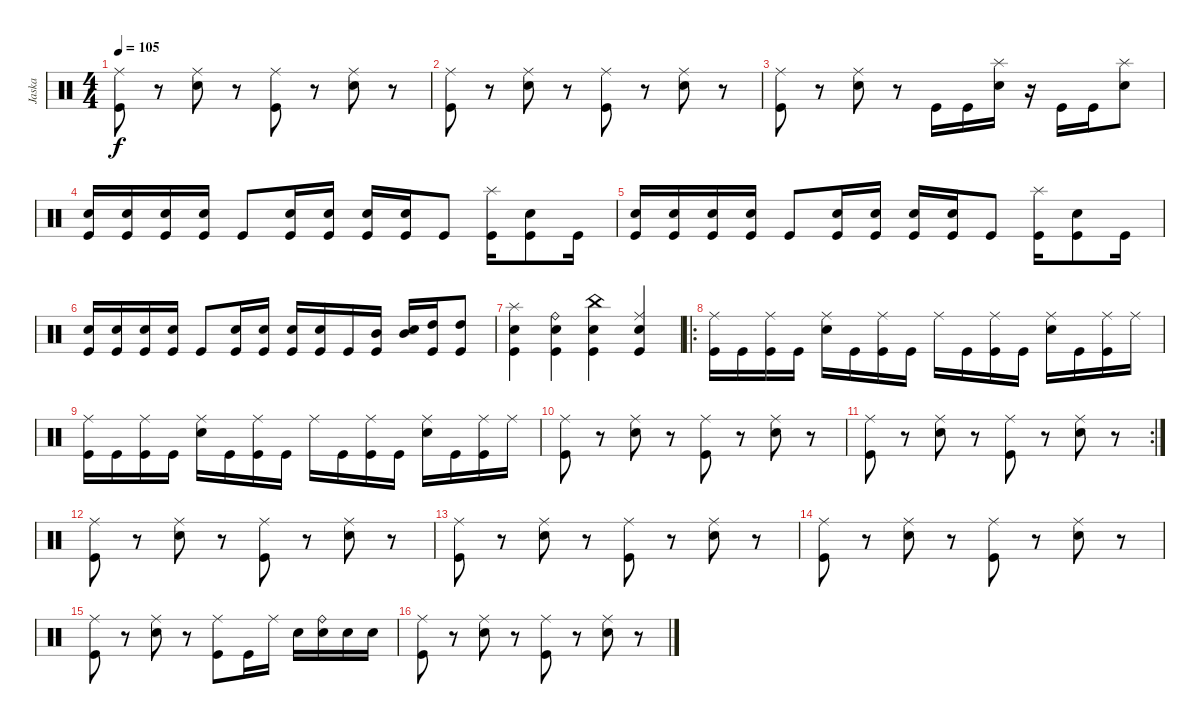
\track ("Jaska" "Jaska") {instrument percussion}
\staff {score}
\articulation defaults
\ts (4 4)
\tempo 105
\clef neutral
\ks c
("Kick (hit)" "Ride (middle)").8{dy f} r.8 ("Snare (hit) 2" "Ride (middle)").8 r.8 ("Kick (hit)" "Ride (middle)").8 r.8 ("Snare (hit) 2" "Ride (middle)").8 r.8 |
("Kick (hit)" "Ride (middle)").8 r.8 ("Snare (hit) 2" "Ride (middle)").8 r.8 ("Kick (hit)" "Ride (middle)").8 r.8 ("Snare (hit) 2" "Ride (middle)").8 r.8 |
("Kick (hit)" "Ride (middle)").8 r.8 ("Snare (hit) 2" "Ride (middle)").8 r.8 "Kick (hit)".16 "Kick (hit)".16 ("Snare (hit) 2" "Splash (hit)").16 r.16 "Kick (hit)".16 "Kick (hit)".16 ("Snare (hit) 2" "Splash (hit)").8 |
("Snare (hit) 2" "Kick (hit)").16 ("Snare (hit) 2" "Kick (hit)").16 ("Snare (hit) 2" "Kick (hit)").16 ("Snare (hit) 2" "Kick (hit)").16 "Kick (hit)".8 ("Snare (hit) 2" "Kick (hit)").16 ("Snare (hit) 2" "Kick (hit)").16 ("Snare (hit) 2" "Kick (hit)").16 ("Snare (hit) 2" "Kick (hit)").16 "Kick (hit)".8 ("Splash (hit)" "Kick (hit)").16 ("Snare (hit) 2" "Kick (hit)").8 "Kick (hit)".16 |
("Snare (hit) 2" "Kick (hit)").16 ("Snare (hit) 2" "Kick (hit)").16 ("Snare (hit) 2" "Kick (hit)").16 ("Snare (hit) 2" "Kick (hit)").16 "Kick (hit)".8 ("Snare (hit) 2" "Kick (hit)").16 ("Snare (hit) 2" "Kick (hit)").16 ("Snare (hit) 2" "Kick (hit)").16 ("Snare (hit) 2" "Kick (hit)").16 "Kick (hit)".8 ("Splash (hit)" "Kick (hit)").16 ("Snare (hit) 2" "Kick (hit)").8 "Kick (hit)".16 |
("Snare (hit) 2" "Kick (hit)").16 ("Snare (hit) 2" "Kick (hit)").16 ("Snare (hit) 2" "Kick (hit)").16 ("Snare (hit) 2" "Kick (hit)").16 "Kick (hit)".8 ("Snare (hit) 2" "Kick (hit)").16 ("Snare (hit) 2" "Kick (hit)").16 ("Snare (hit) 2" "Kick (hit)").16 ("Snare (hit) 2" "Kick (hit)").16 "Kick (hit)".16 ("Kick (hit)" "Mid Tom (hit)").16 ("Snare (hit) 2" "Mid Tom (hit)").16 ("Kick (hit)" "High Tom (hit)").16 ("Kick (hit)" "High Tom (hit)").8 |
("Kick (hit)" "Snare (hit) 2" "Splash (hit)").4 ("Kick (hit)" "Snare (hit) 2" "Ride (bell)").4 ("Kick (hit)" "Snare (hit) 2" "China (hit)").4 ("Kick (hit)" "Snare (hit) 2" "Ride (middle)").4 |
\ro
("Kick (hit)" "Ride (middle)").16 "Kick (hit)".16 ("Kick (hit)" "Ride (middle)").16 "Kick (hit)".16 ("Snare (hit) 2" "Ride (middle)").16 "Kick (hit)".16 ("Kick (hit)" "Ride (middle)").16 "Kick (hit)".16 "Ride (middle)".16 "Kick (hit)".16 ("Kick (hit)" "Ride (middle)").16 "Kick (hit)".16 ("Snare (hit) 2" "Ride (middle)").16 "Kick (hit)".16 ("Kick (hit)" "Ride (middle)").16 "Ride (middle)".16 |
("Kick (hit)" "Ride (middle)").16 "Kick (hit)".16 ("Kick (hit)" "Ride (middle)").16 "Kick (hit)".16 ("Snare (hit) 2" "Ride (middle)").16 "Kick (hit)".16 ("Kick (hit)" "Ride (middle)").16 "Kick (hit)".16 "Ride (middle)".16 "Kick (hit)".16 ("Kick (hit)" "Ride (middle)").16 "Kick (hit)".16 ("Snare (hit) 2" "Ride (middle)").16 "Kick (hit)".16 ("Kick (hit)" "Ride (middle)").16 "Ride (middle)".16 |
("Kick (hit)" "Ride (middle)").8 r.8 ("Snare (hit) 2" "Ride (middle)").8 r.8 ("Kick (hit)" "Ride (middle)").8 r.8 ("Snare (hit) 2" "Ride (middle)").8 r.8 |
\rc 2
("Kick (hit)" "Ride (middle)").8 r.8 ("Snare (hit) 2" "Ride (middle)").8 r.8 ("Kick (hit)" "Ride (middle)").8 r.8 ("Snare (hit) 2" "Ride (middle)").8 r.8 |
("Kick (hit)" "Ride (middle)").8 r.8 ("Snare (hit) 2" "Ride (middle)").8 r.8 ("Kick (hit)" "Ride (middle)").8 r.8 ("Snare (hit) 2" "Ride (middle)").8 r.8 |
("Kick (hit)" "Ride (middle)").8 r.8 ("Snare (hit) 2" "Ride (middle)").8 r.8 ("Kick (hit)" "Ride (middle)").8 r.8 ("Snare (hit) 2" "Ride (middle)").8 r.8 |
("Kick (hit)" "Ride (middle)").8 r.8 ("Snare (hit) 2" "Ride (middle)").8 r.8 ("Kick (hit)" "Ride (middle)").8 r.8 ("Snare (hit) 2" "Ride (middle)").8 r.8 |
("Kick (hit)" "Ride (middle)").8 r.8 ("Snare (hit) 2" "Ride (middle)").8 r.8 ("Kick (hit)" "Ride (middle)").8 "Kick (hit)".16 "Ride (middle)".16 "Snare (hit) 2".16 ("Snare (hit) 2" "Ride (bell)").16 "Snare (hit) 2".16 "Snare (hit) 2".16 |
("Kick (hit)" "Ride (middle)").8 r.8 ("Snare (hit) 2" "Ride (middle)").8 r.8 ("Kick (hit)" "Ride (middle)").8 r.8 ("Snare (hit) 2" "Ride (middle)").8 r.8
